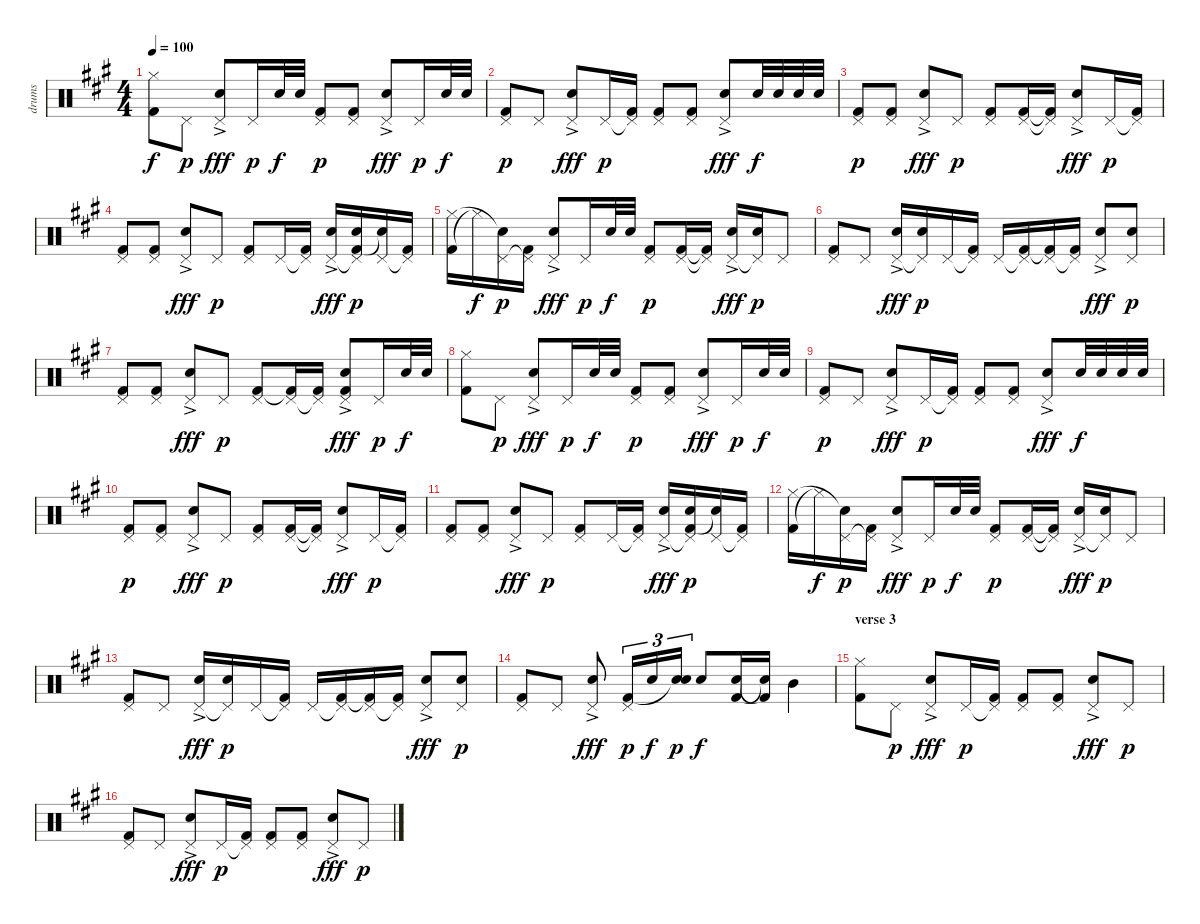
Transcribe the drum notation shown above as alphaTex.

\track ("drums" "drums") {instrument percussion}
\staff {score}
\articulation defaults
\ts (4 4)
\tempo 100
\clef neutral
\ks a
("Hi-Hat (closed)" "Kick (hit) 2").8{dy f} "Pedal Hi-Hat (hit)".8{dy p} ("Pedal Hi-Hat (hit)" "Snare (hit) 2"{ac}).8{dy fff} "Pedal Hi-Hat (hit)".16{dy p} "Snare (hit) 2".32{dy f} "Snare (hit) 2".32 ("Pedal Hi-Hat (hit)" "Kick (hit) 2").8{dy p} ("Pedal Hi-Hat (hit)" "Kick (hit) 2").8 ("Pedal Hi-Hat (hit)" "Snare (hit) 2"{ac}).8{dy fff} "Pedal Hi-Hat (hit)".16{dy p} "Snare (hit) 2".32{dy f} "Snare (hit) 2".32 |
("Pedal Hi-Hat (hit)" "Kick (hit) 2").8{dy p} "Pedal Hi-Hat (hit)".8 ("Pedal Hi-Hat (hit)" "Snare (hit) 2"{ac}).8{dy fff} "Pedal Hi-Hat (hit)".16{dy p} ("Pedal Hi-Hat (hit)"{t} "Kick (hit) 2").16 ("Pedal Hi-Hat (hit)" "Kick (hit) 2").8 ("Pedal Hi-Hat (hit)" "Kick (hit) 2").8 ("Pedal Hi-Hat (hit)" "Snare (hit) 2"{ac}).8{dy fff} "Snare (hit) 2".32{dy f} "Snare (hit) 2".32 "Snare (hit) 2".32 "Snare (hit) 2".32 |
("Pedal Hi-Hat (hit)" "Kick (hit) 2").8{dy p} ("Pedal Hi-Hat (hit)" "Kick (hit) 2").8 ("Pedal Hi-Hat (hit)" "Snare (hit) 2"{ac}).8{dy fff} "Pedal Hi-Hat (hit)".8{dy p} ("Pedal Hi-Hat (hit)" "Kick (hit) 2").8 ("Pedal Hi-Hat (hit)" "Kick (hit) 2").16 ("Pedal Hi-Hat (hit)"{t} "Kick (hit) 2"{t}).16 ("Pedal Hi-Hat (hit)" "Snare (hit) 2"{ac}).8{dy fff} "Pedal Hi-Hat (hit)".16{dy p} ("Pedal Hi-Hat (hit)"{t} "Kick (hit) 2").16 |
("Pedal Hi-Hat (hit)" "Kick (hit) 2").8 ("Pedal Hi-Hat (hit)" "Kick (hit) 2").8 ("Pedal Hi-Hat (hit)" "Snare (hit) 2"{ac}).8{dy fff} "Pedal Hi-Hat (hit)".8{dy p} ("Pedal Hi-Hat (hit)" "Kick (hit) 2").8 "Pedal Hi-Hat (hit)".16 ("Pedal Hi-Hat (hit)"{t} "Kick (hit) 2").16 ("Pedal Hi-Hat (hit)" "Snare (hit) 2"{ac}).16{dy fff} ("Pedal Hi-Hat (hit)"{t} "Kick (hit) 2" "Snare (hit) 2").16{dy p} ("Pedal Hi-Hat (hit)" "Snare (hit)"{t}).16 ("Pedal Hi-Hat (hit)"{t} "Kick (hit) 2").16 |
("Kick (hit) 2" "Hi-Hat (closed)").16 "Hi-Hat (closed)"{t}.16{dy f} ("Pedal Hi-Hat (hit)" "Snare (hit)"{t}).16{dy p} ("Pedal Hi-Hat (hit)"{t} "Kick (hit) 2").16 ("Pedal Hi-Hat (hit)" "Snare (hit) 2"{ac}).8{dy fff} "Pedal Hi-Hat (hit)".16{dy p} "Snare (hit) 2".32{dy f} "Snare (hit) 2".32 ("Pedal Hi-Hat (hit)" "Kick (hit) 2").8{dy p} ("Pedal Hi-Hat (hit)" "Kick (hit) 2").16 ("Pedal Hi-Hat (hit)"{t} "Kick (hit) 2"{t}).16 ("Pedal Hi-Hat (hit)" "Snare (hit) 2"{ac}).16{dy fff} ("Pedal Hi-Hat (hit)"{t} "Snare (hit) 2").16{dy p} "Pedal Hi-Hat (hit)".8 |
("Pedal Hi-Hat (hit)" "Kick (hit) 2").8 "Pedal Hi-Hat (hit)".8 ("Pedal Hi-Hat (hit)" "Snare (hit) 2"{ac}).16{dy fff} ("Pedal Hi-Hat (hit)"{t} "Snare (hit) 2").16{dy p} "Pedal Hi-Hat (hit)".16 ("Pedal Hi-Hat (hit)"{t} "Kick (hit) 2").16 "Pedal Hi-Hat (hit)".16 ("Pedal Hi-Hat (hit)"{t} "Kick (hit) 2").16 ("Pedal Hi-Hat (hit)" "Kick (hit) 2"{t}).16 ("Pedal Hi-Hat (hit)"{t} "Kick (hit) 2").16 ("Pedal Hi-Hat (hit)" "Snare (hit) 2"{ac}).8{dy fff} ("Pedal Hi-Hat (hit)" "Snare (hit) 2").8{dy p} |
("Pedal Hi-Hat (hit)" "Kick (hit) 2").8 ("Pedal Hi-Hat (hit)" "Kick (hit) 2").8 ("Pedal Hi-Hat (hit)" "Snare (hit) 2"{ac}).8{dy fff} "Pedal Hi-Hat (hit)".8{dy p} ("Pedal Hi-Hat (hit)" "Kick (hit) 2").8 ("Pedal Hi-Hat (hit)" "Kick (hit) 2"{t}).16 ("Pedal Hi-Hat (hit)"{t} "Kick (hit) 2").16 ("Pedal Hi-Hat (hit)" "Kick (hit) 2"{ac} "Snare (hit) 2").8{dy fff} "Pedal Hi-Hat (hit)".16{dy p} "Snare (hit) 2".32{dy f} "Snare (hit) 2".32 |
("Hi-Hat (closed)" "Kick (hit) 2").8 "Pedal Hi-Hat (hit)".8{dy p} ("Pedal Hi-Hat (hit)" "Snare (hit) 2"{ac}).8{dy fff} "Pedal Hi-Hat (hit)".16{dy p} "Snare (hit) 2".32{dy f} "Snare (hit) 2".32 ("Pedal Hi-Hat (hit)" "Kick (hit) 2").8{dy p} ("Pedal Hi-Hat (hit)" "Kick (hit) 2").8 ("Pedal Hi-Hat (hit)" "Snare (hit) 2"{ac}).8{dy fff} "Pedal Hi-Hat (hit)".16{dy p} "Snare (hit) 2".32{dy f} "Snare (hit) 2".32 |
("Pedal Hi-Hat (hit)" "Kick (hit) 2").8{dy p} "Pedal Hi-Hat (hit)".8 ("Pedal Hi-Hat (hit)" "Snare (hit) 2"{ac}).8{dy fff} "Pedal Hi-Hat (hit)".16{dy p} ("Pedal Hi-Hat (hit)"{t} "Kick (hit) 2").16 ("Pedal Hi-Hat (hit)" "Kick (hit) 2").8 ("Pedal Hi-Hat (hit)" "Kick (hit) 2").8 ("Pedal Hi-Hat (hit)" "Snare (hit) 2"{ac}).8{dy fff} "Snare (hit) 2".32{dy f} "Snare (hit) 2".32 "Snare (hit) 2".32 "Snare (hit) 2".32 |
("Pedal Hi-Hat (hit)" "Kick (hit) 2").8{dy p} ("Pedal Hi-Hat (hit)" "Kick (hit) 2").8 ("Pedal Hi-Hat (hit)" "Snare (hit) 2"{ac}).8{dy fff} "Pedal Hi-Hat (hit)".8{dy p} ("Pedal Hi-Hat (hit)" "Kick (hit) 2").8 ("Pedal Hi-Hat (hit)" "Kick (hit) 2").16 ("Pedal Hi-Hat (hit)"{t} "Kick (hit) 2"{t}).16 ("Pedal Hi-Hat (hit)" "Snare (hit) 2"{ac}).8{dy fff} "Pedal Hi-Hat (hit)".16{dy p} ("Pedal Hi-Hat (hit)"{t} "Kick (hit) 2").16 |
("Pedal Hi-Hat (hit)" "Kick (hit) 2").8 ("Pedal Hi-Hat (hit)" "Kick (hit) 2").8 ("Pedal Hi-Hat (hit)" "Snare (hit) 2"{ac}).8{dy fff} "Pedal Hi-Hat (hit)".8{dy p} ("Pedal Hi-Hat (hit)" "Kick (hit) 2").8 "Pedal Hi-Hat (hit)".16 ("Pedal Hi-Hat (hit)"{t} "Kick (hit) 2").16 ("Pedal Hi-Hat (hit)" "Snare (hit) 2"{ac}).16{dy fff} ("Pedal Hi-Hat (hit)"{t} "Kick (hit) 2" "Snare (hit) 2").16{dy p} ("Pedal Hi-Hat (hit)" "Snare (hit)"{t}).16 ("Pedal Hi-Hat (hit)"{t} "Kick (hit) 2").16 |
("Kick (hit) 2" "Hi-Hat (closed)").16 "Hi-Hat (closed)"{t}.16{dy f} ("Pedal Hi-Hat (hit)" "Snare (hit)"{t}).16{dy p} ("Pedal Hi-Hat (hit)"{t} "Kick (hit) 2").16 ("Pedal Hi-Hat (hit)" "Snare (hit) 2"{ac}).8{dy fff} "Pedal Hi-Hat (hit)".16{dy p} "Snare (hit) 2".32{dy f} "Snare (hit) 2".32 ("Pedal Hi-Hat (hit)" "Kick (hit) 2").8{dy p} ("Pedal Hi-Hat (hit)" "Kick (hit) 2").16 ("Pedal Hi-Hat (hit)"{t} "Kick (hit) 2"{t}).16 ("Pedal Hi-Hat (hit)" "Snare (hit) 2"{ac}).16{dy fff} ("Pedal Hi-Hat (hit)"{t} "Snare (hit) 2").16{dy p} "Pedal Hi-Hat (hit)".8 |
("Pedal Hi-Hat (hit)" "Kick (hit) 2").8 "Pedal Hi-Hat (hit)".8 ("Pedal Hi-Hat (hit)" "Snare (hit) 2"{ac}).16{dy fff} ("Pedal Hi-Hat (hit)"{t} "Snare (hit) 2").16{dy p} "Pedal Hi-Hat (hit)".16 ("Pedal Hi-Hat (hit)"{t} "Kick (hit) 2").16 "Pedal Hi-Hat (hit)".16 ("Pedal Hi-Hat (hit)"{t} "Kick (hit) 2").16 ("Pedal Hi-Hat (hit)" "Kick (hit) 2"{t}).16 ("Pedal Hi-Hat (hit)"{t} "Kick (hit) 2").16 ("Pedal Hi-Hat (hit)" "Snare (hit) 2"{ac}).8{dy fff} ("Pedal Hi-Hat (hit)" "Snare (hit) 2").8{dy p} |
("Pedal Hi-Hat (hit)" "Kick (hit) 2").8 "Pedal Hi-Hat (hit)".8 ("Pedal Hi-Hat (hit)" "Snare (hit) 2"{ac}).8{dy fff} ("Pedal Hi-Hat (hit)" "Kick (hit) 2").16{tu (3 2) dy p} "Snare (hit) 2".16{tu (3 2) dy f} ("Snare (hit) 2" "Snare (hit)"{t}).16{tu (3 2) dy p} "Snare (hit) 2".8{dy f} ("Snare (hit) 2" "Kick (hit) 2").16 ("Kick (hit) 2"{t} "Snare (hit)"{t}).16 "Mid Tom (hit)".4 |
\section ("" "verse 3")
("Hi-Hat (closed)" "Kick (hit) 2").8 "Pedal Hi-Hat (hit)".8{dy p} ("Pedal Hi-Hat (hit)" "Snare (hit) 2"{ac}).8{dy fff} "Pedal Hi-Hat (hit)".16{dy p} ("Pedal Hi-Hat (hit)"{t} "Kick (hit) 2").16 ("Pedal Hi-Hat (hit)" "Kick (hit) 2").8 ("Pedal Hi-Hat (hit)" "Kick (hit) 2").8 ("Pedal Hi-Hat (hit)" "Snare (hit) 2"{ac}).8{dy fff} "Pedal Hi-Hat (hit)".8{dy p} |
("Pedal Hi-Hat (hit)" "Kick (hit) 2").8 "Pedal Hi-Hat (hit)".8 ("Pedal Hi-Hat (hit)" "Snare (hit) 2"{ac}).8{dy fff} "Pedal Hi-Hat (hit)".16{dy p} ("Pedal Hi-Hat (hit)"{t} "Kick (hit) 2").16 ("Pedal Hi-Hat (hit)" "Kick (hit) 2").8 ("Pedal Hi-Hat (hit)" "Kick (hit) 2").8 ("Pedal Hi-Hat (hit)" "Snare (hit) 2"{ac}).8{dy fff} "Pedal Hi-Hat (hit)".8{dy p}
